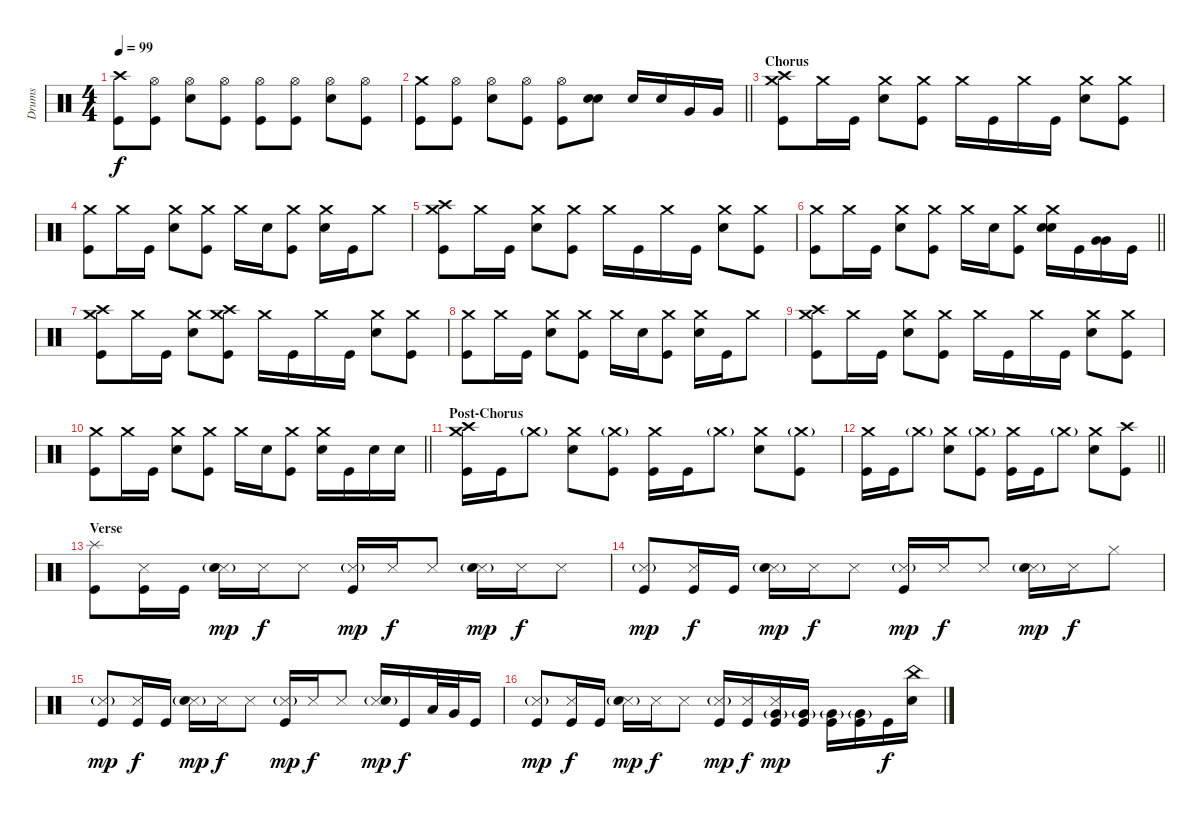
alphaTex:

\track ("Drums" "Drums") {instrument percussion}
\staff {score}
\articulation defaults
\ts (4 4)
\tempo 99
\clef neutral
\ks c
("Crash high (hit)" "Kick (hit)").8{dy f} ("Hi-Hat (open)" "Kick (hit)").8 ("Hi-Hat (open)" "Snare (hit) 2").8 ("Hi-Hat (open)" "Kick (hit)").8 ("Hi-Hat (open)" "Kick (hit)").8 ("Hi-Hat (open)" "Kick (hit)").8 ("Hi-Hat (open)" "Snare (hit) 2").8 ("Hi-Hat (open)" "Kick (hit)").8 |
\barLineRight lightlight
("Crash medium (hit)" "Kick (hit)").8 ("Hi-Hat (open)" "Kick (hit)").8 ("Hi-Hat (open)" "Snare (hit) 2").8 ("Hi-Hat (open)" "Kick (hit)").8 ("Hi-Hat (open)" "Kick (hit)").8 ("Snare (hit) 2" "Snare (hit) 2").8 "Snare (hit) 2".16 "Snare (hit) 2".16 "Very Low Tom (hit)".16 "Very Low Tom (hit)".16 |
\section ("" "Chorus")
("Crash high (hit)" "Crash medium (hit)" "Kick (hit)").8 "Crash medium (hit)".16 "Kick (hit)".16 ("Crash medium (hit)" "Snare (hit) 2").8 ("Crash medium (hit)" "Kick (hit)").8 "Crash medium (hit)".16 "Kick (hit)".16 "Crash medium (hit)".16 "Kick (hit)".16 ("Crash medium (hit)" "Snare (hit) 2").8 ("Crash medium (hit)" "Kick (hit)").8 |
("Crash medium (hit)" "Kick (hit)").8 "Crash medium (hit)".16 "Kick (hit)".16 ("Crash medium (hit)" "Snare (hit) 2").8 ("Crash medium (hit)" "Kick (hit)").8 "Crash medium (hit)".16 "Snare (hit) 2".16 ("Crash medium (hit)" "Kick (hit)").8 ("Crash medium (hit)" "Snare (hit) 2").16 "Kick (hit)".16 "Crash medium (hit)".8 |
("Crash high (hit)" "Crash medium (hit)" "Kick (hit)").8 "Crash medium (hit)".16 "Kick (hit)".16 ("Crash medium (hit)" "Snare (hit) 2").8 ("Crash medium (hit)" "Kick (hit)").8 "Crash medium (hit)".16 "Kick (hit)".16 "Crash medium (hit)".16 "Kick (hit)".16 ("Crash medium (hit)" "Snare (hit) 2").8 ("Crash medium (hit)" "Kick (hit)").8 |
\barLineRight lightlight
("Crash medium (hit)" "Kick (hit)").8 "Crash medium (hit)".16 "Kick (hit)".16 ("Crash medium (hit)" "Snare (hit) 2").8 ("Crash medium (hit)" "Kick (hit)").8 "Crash medium (hit)".16 "Snare (hit) 2".16 ("Crash medium (hit)" "Kick (hit)").8 ("Crash medium (hit)" "Snare (hit) 2" "Snare (hit) 2").16 "Kick (hit)".16 ("Very Low Tom (hit)" "Very Low Tom (hit)").16 "Kick (hit)".16 |
("Crash high (hit)" "Crash medium (hit)" "Kick (hit)").8 "Crash medium (hit)".16 "Kick (hit)".16 ("Crash medium (hit)" "Snare (hit) 2").8 ("Crash medium (hit)" "Crash high (hit)" "Kick (hit)").8 "Crash medium (hit)".16 "Kick (hit)".16 "Crash medium (hit)".16 "Kick (hit)".16 ("Crash medium (hit)" "Snare (hit) 2").8 ("Crash medium (hit)" "Kick (hit)").8 |
("Crash medium (hit)" "Kick (hit)").8 "Crash medium (hit)".16 "Kick (hit)".16 ("Crash medium (hit)" "Snare (hit) 2").8 ("Crash medium (hit)" "Kick (hit)").8 "Crash medium (hit)".16 "Snare (hit) 2".16 ("Crash medium (hit)" "Kick (hit)").8 ("Crash medium (hit)" "Snare (hit) 2").16 "Kick (hit)".16 "Crash medium (hit)".8 |
("Crash high (hit)" "Crash medium (hit)" "Kick (hit)").8 "Crash medium (hit)".16 "Kick (hit)".16 ("Crash medium (hit)" "Snare (hit) 2").8 ("Crash medium (hit)" "Kick (hit)").8 "Crash medium (hit)".16 "Kick (hit)".16 "Crash medium (hit)".16 "Kick (hit)".16 ("Crash medium (hit)" "Snare (hit) 2").8 ("Crash medium (hit)" "Kick (hit)").8 |
\barLineRight lightlight
("Crash medium (hit)" "Kick (hit)").8 "Crash medium (hit)".16 "Kick (hit)".16 ("Crash medium (hit)" "Snare (hit) 2").8 ("Crash medium (hit)" "Kick (hit)").8 "Crash medium (hit)".16 "Snare (hit) 2".16 ("Crash medium (hit)" "Kick (hit)").8 ("Crash medium (hit)" "Snare (hit) 2").16 "Kick (hit)".16 "Snare (hit) 2".16 "Snare (hit) 2".16 |
\section ("" "Post-Chorus")
("Crash medium (hit)" "Crash high (hit)" "Kick (hit)").16 "Kick (hit)".16 "Crash medium (hit)"{g}.8 ("Crash medium (hit)" "Snare (hit) 2").8 ("Crash medium (hit)"{g} "Kick (hit)").8 ("Crash medium (hit)" "Kick (hit)").16 "Kick (hit)".16 "Crash medium (hit)"{g}.8 ("Crash medium (hit)" "Snare (hit) 2").8 ("Crash medium (hit)"{g} "Kick (hit)").8 |
\barLineRight lightlight
("Crash medium (hit)" "Kick (hit)").16 "Kick (hit)".16 "Crash medium (hit)"{g}.8 ("Crash medium (hit)" "Snare (hit) 2").8 ("Crash medium (hit)"{g} "Kick (hit)").8 ("Crash medium (hit)" "Kick (hit)").16 "Kick (hit)".16 "Crash medium (hit)"{g}.8 ("Crash medium (hit)" "Snare (hit) 2").8 ("Crash high (hit)" "Kick (hit)").8 |
\section ("" "Verse")
("Splash (hit)" "Kick (hit)").8 ("Snare (side stick) 3" "Kick (hit)").16 "Kick (hit)".16 ("Snare (side stick) 3"{g} "Snare (hit) 2").16{dy mp} "Snare (side stick) 3".16{dy f} "Snare (side stick) 3".8 ("Snare (side stick) 3"{g} "Kick (hit)").16{dy mp} "Snare (side stick) 3".16{dy f} "Snare (side stick) 3".8 ("Snare (side stick) 3"{g} "Snare (hit) 2").16{dy mp} "Snare (side stick) 3".16{dy f} "Snare (side stick) 3".8 |
("Snare (side stick) 3"{g} "Kick (hit)").8{dy mp} ("Snare (side stick) 3" "Kick (hit)").16{dy f} "Kick (hit)".16 ("Snare (side stick) 3"{g} "Snare (hit) 2").16{dy mp} "Snare (side stick) 3".16{dy f} "Snare (side stick) 3".8 ("Snare (side stick) 3"{g} "Kick (hit)").16{dy mp} "Snare (side stick) 3".16{dy f} "Snare (side stick) 3".8 ("Snare (side stick) 3"{g} "Snare (hit) 2").16{dy mp} "Snare (side stick) 3".16{dy f} "Hi-Hat (closed)".8 |
("Snare (side stick) 3"{g} "Kick (hit)").8{dy mp} ("Snare (side stick) 3" "Kick (hit)").16{dy f} "Kick (hit)".16 ("Snare (side stick) 3"{g} "Snare (hit) 2").16{dy mp} "Snare (side stick) 3".16{dy f} "Snare (side stick) 3".8 ("Snare (side stick) 3"{g} "Kick (hit)").16{dy mp} "Snare (side stick) 3".16{dy f} "Snare (side stick) 3".8 ("Snare (side stick) 3"{g} "Snare (hit) 2").16{dy mp} "Kick (hit)".16{dy f} "Low Tom (hit)".32 "Very Low Tom (hit)".32 "Kick (hit)".16 |
("Snare (side stick) 3"{g} "Kick (hit)").8{dy mp} ("Snare (side stick) 3" "Kick (hit)").16{dy f} "Kick (hit)".16 ("Snare (side stick) 3"{g} "Snare (hit) 2").16{dy mp} "Snare (side stick) 3".16{dy f} "Snare (side stick) 3".8 ("Snare (side stick) 3"{g} "Kick (hit)").16{dy mp} ("Snare (side stick) 3" "Kick (hit)").16{dy f} ("Snare (side stick) 3" "Very Low Tom (hit)"{g} "Kick (hit)").16{dy mp} ("Very Low Tom (hit)"{g} "Kick (hit)").16 ("Very Low Tom (hit)"{g} "Kick (hit)").16 ("Very Low Tom (hit)"{g} "Kick (hit)").16 "Kick (hit)".16{dy f} ("China (hit)" "Snare (hit) 2").16
